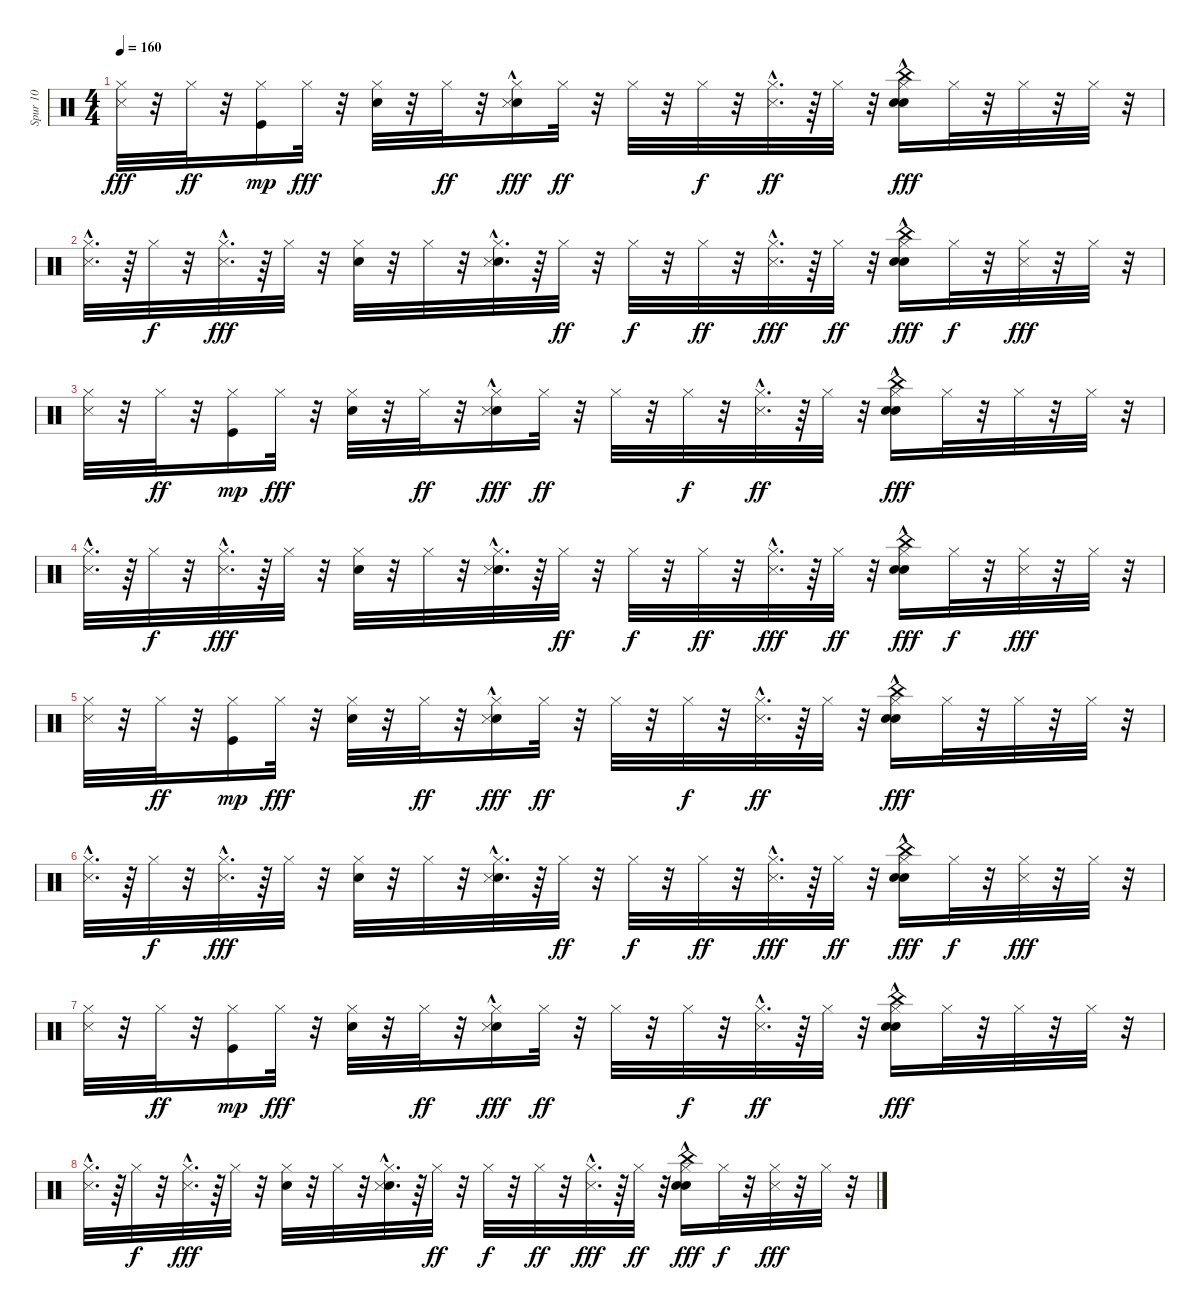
\track ("Spur 10" "Spur 10") {instrument percussion}
\staff {score}
\articulation defaults
\ts (4 4)
\tempo 160
\clef neutral
\ks c
("Hi-Hat (closed)" "Metronome (hit)").32{dy fff} r.32 "Hi-Hat (closed)".32{dy ff} r.32 ("Hi-Hat (closed)" "Kick (hit)").16{dy mp} "Hi-Hat (closed)".32{dy fff} r.32 ("Hi-Hat (closed)" "Snare (hit) 2").32 r.32 "Hi-Hat (closed)".32{dy ff} r.32 ("Hi-Hat (closed)" "Snare (hit) 2" "Metronome (hit)"{hac}).16{dy fff} "Hi-Hat (closed)".32{dy ff} r.32 "Hi-Hat (closed)".32 r.32 "Hi-Hat (closed)".32{dy f} r.32 ("Hi-Hat (closed)" "Metronome (hit)"{hac}).32{d dy ff} r.64 "Hi-Hat (closed)".32 r.32 ("Hi-Hat (closed)" "Snare (hit) 2"{hac} "China (hit)" "Hand Clap (hit)").16{dy fff} "Hi-Hat (closed)".32 r.32 "Hi-Hat (closed)".32 r.32 "Hi-Hat (closed)".32 r.32 |
("Hi-Hat (closed)" "Metronome (hit)"{hac}).32{d} r.64 "Hi-Hat (closed)".32{dy f} r.32 ("Hi-Hat (closed)" "Metronome (hit)"{hac}).32{d dy fff} r.64 "Hi-Hat (closed)".32 r.32 ("Hi-Hat (closed)" "Snare (hit) 2").32 r.32 "Hi-Hat (closed)".32 r.32 ("Hi-Hat (closed)" "Snare (hit) 2"{hac} "Metronome (hit)"{hac}).32{d} r.64 "Hi-Hat (closed)".32{dy ff} r.32 "Hi-Hat (closed)".32{dy f} r.32 "Hi-Hat (closed)".32{dy ff} r.32 ("Hi-Hat (closed)" "Metronome (hit)"{hac}).32{d dy fff} r.64 "Hi-Hat (closed)".32{dy ff} r.32 ("Hi-Hat (closed)" "Snare (hit) 2"{hac} "China (hit)" "Hand Clap (hit)").16{dy fff} "Hi-Hat (closed)".32{dy f} r.32 ("Hi-Hat (closed)" "Metronome (hit)").32{dy fff} r.32 "Hi-Hat (closed)".32 r.32 |
("Hi-Hat (closed)" "Metronome (hit)").32 r.32 "Hi-Hat (closed)".32{dy ff} r.32 ("Hi-Hat (closed)" "Kick (hit)").16{dy mp} "Hi-Hat (closed)".32{dy fff} r.32 ("Hi-Hat (closed)" "Snare (hit) 2").32 r.32 "Hi-Hat (closed)".32{dy ff} r.32 ("Hi-Hat (closed)" "Snare (hit) 2" "Metronome (hit)"{hac}).16{dy fff} "Hi-Hat (closed)".32{dy ff} r.32 "Hi-Hat (closed)".32 r.32 "Hi-Hat (closed)".32{dy f} r.32 ("Hi-Hat (closed)" "Metronome (hit)"{hac}).32{d dy ff} r.64 "Hi-Hat (closed)".32 r.32 ("Hi-Hat (closed)" "Snare (hit) 2"{hac} "China (hit)" "Hand Clap (hit)").16{dy fff} "Hi-Hat (closed)".32 r.32 "Hi-Hat (closed)".32 r.32 "Hi-Hat (closed)".32 r.32 |
("Hi-Hat (closed)" "Metronome (hit)"{hac}).32{d} r.64 "Hi-Hat (closed)".32{dy f} r.32 ("Hi-Hat (closed)" "Metronome (hit)"{hac}).32{d dy fff} r.64 "Hi-Hat (closed)".32 r.32 ("Hi-Hat (closed)" "Snare (hit) 2").32 r.32 "Hi-Hat (closed)".32 r.32 ("Hi-Hat (closed)" "Snare (hit) 2"{hac} "Metronome (hit)"{hac}).32{d} r.64 "Hi-Hat (closed)".32{dy ff} r.32 "Hi-Hat (closed)".32{dy f} r.32 "Hi-Hat (closed)".32{dy ff} r.32 ("Hi-Hat (closed)" "Metronome (hit)"{hac}).32{d dy fff} r.64 "Hi-Hat (closed)".32{dy ff} r.32 ("Hi-Hat (closed)" "Snare (hit) 2"{hac} "China (hit)" "Hand Clap (hit)").16{dy fff} "Hi-Hat (closed)".32{dy f} r.32 ("Hi-Hat (closed)" "Metronome (hit)").32{dy fff} r.32 "Hi-Hat (closed)".32 r.32 |
("Hi-Hat (closed)" "Metronome (hit)").32 r.32 "Hi-Hat (closed)".32{dy ff} r.32 ("Hi-Hat (closed)" "Kick (hit)").16{dy mp} "Hi-Hat (closed)".32{dy fff} r.32 ("Hi-Hat (closed)" "Snare (hit) 2").32 r.32 "Hi-Hat (closed)".32{dy ff} r.32 ("Hi-Hat (closed)" "Snare (hit) 2" "Metronome (hit)"{hac}).16{dy fff} "Hi-Hat (closed)".32{dy ff} r.32 "Hi-Hat (closed)".32 r.32 "Hi-Hat (closed)".32{dy f} r.32 ("Hi-Hat (closed)" "Metronome (hit)"{hac}).32{d dy ff} r.64 "Hi-Hat (closed)".32 r.32 ("Hi-Hat (closed)" "Snare (hit) 2"{hac} "China (hit)" "Hand Clap (hit)").16{dy fff} "Hi-Hat (closed)".32 r.32 "Hi-Hat (closed)".32 r.32 "Hi-Hat (closed)".32 r.32 |
("Hi-Hat (closed)" "Metronome (hit)"{hac}).32{d} r.64 "Hi-Hat (closed)".32{dy f} r.32 ("Hi-Hat (closed)" "Metronome (hit)"{hac}).32{d dy fff} r.64 "Hi-Hat (closed)".32 r.32 ("Hi-Hat (closed)" "Snare (hit) 2").32 r.32 "Hi-Hat (closed)".32 r.32 ("Hi-Hat (closed)" "Snare (hit) 2"{hac} "Metronome (hit)"{hac}).32{d} r.64 "Hi-Hat (closed)".32{dy ff} r.32 "Hi-Hat (closed)".32{dy f} r.32 "Hi-Hat (closed)".32{dy ff} r.32 ("Hi-Hat (closed)" "Metronome (hit)"{hac}).32{d dy fff} r.64 "Hi-Hat (closed)".32{dy ff} r.32 ("Hi-Hat (closed)" "Snare (hit) 2"{hac} "China (hit)" "Hand Clap (hit)").16{dy fff} "Hi-Hat (closed)".32{dy f} r.32 ("Hi-Hat (closed)" "Metronome (hit)").32{dy fff} r.32 "Hi-Hat (closed)".32 r.32 |
("Hi-Hat (closed)" "Metronome (hit)").32 r.32 "Hi-Hat (closed)".32{dy ff} r.32 ("Hi-Hat (closed)" "Kick (hit)").16{dy mp} "Hi-Hat (closed)".32{dy fff} r.32 ("Hi-Hat (closed)" "Snare (hit) 2").32 r.32 "Hi-Hat (closed)".32{dy ff} r.32 ("Hi-Hat (closed)" "Snare (hit) 2" "Metronome (hit)"{hac}).16{dy fff} "Hi-Hat (closed)".32{dy ff} r.32 "Hi-Hat (closed)".32 r.32 "Hi-Hat (closed)".32{dy f} r.32 ("Hi-Hat (closed)" "Metronome (hit)"{hac}).32{d dy ff} r.64 "Hi-Hat (closed)".32 r.32 ("Hi-Hat (closed)" "Snare (hit) 2"{hac} "China (hit)" "Hand Clap (hit)").16{dy fff} "Hi-Hat (closed)".32 r.32 "Hi-Hat (closed)".32 r.32 "Hi-Hat (closed)".32 r.32 |
("Hi-Hat (closed)" "Metronome (hit)"{hac}).32{d} r.64 "Hi-Hat (closed)".32{dy f} r.32 ("Hi-Hat (closed)" "Metronome (hit)"{hac}).32{d dy fff} r.64 "Hi-Hat (closed)".32 r.32 ("Hi-Hat (closed)" "Snare (hit) 2").32 r.32 "Hi-Hat (closed)".32 r.32 ("Hi-Hat (closed)" "Snare (hit) 2"{hac} "Metronome (hit)"{hac}).32{d} r.64 "Hi-Hat (closed)".32{dy ff} r.32 "Hi-Hat (closed)".32{dy f} r.32 "Hi-Hat (closed)".32{dy ff} r.32 ("Hi-Hat (closed)" "Metronome (hit)"{hac}).32{d dy fff} r.64 "Hi-Hat (closed)".32{dy ff} r.32 ("Hi-Hat (closed)" "Snare (hit) 2"{hac} "China (hit)" "Hand Clap (hit)").16{dy fff} "Hi-Hat (closed)".32{dy f} r.32 ("Hi-Hat (closed)" "Metronome (hit)").32{dy fff} r.32 "Hi-Hat (closed)".32 r.32
